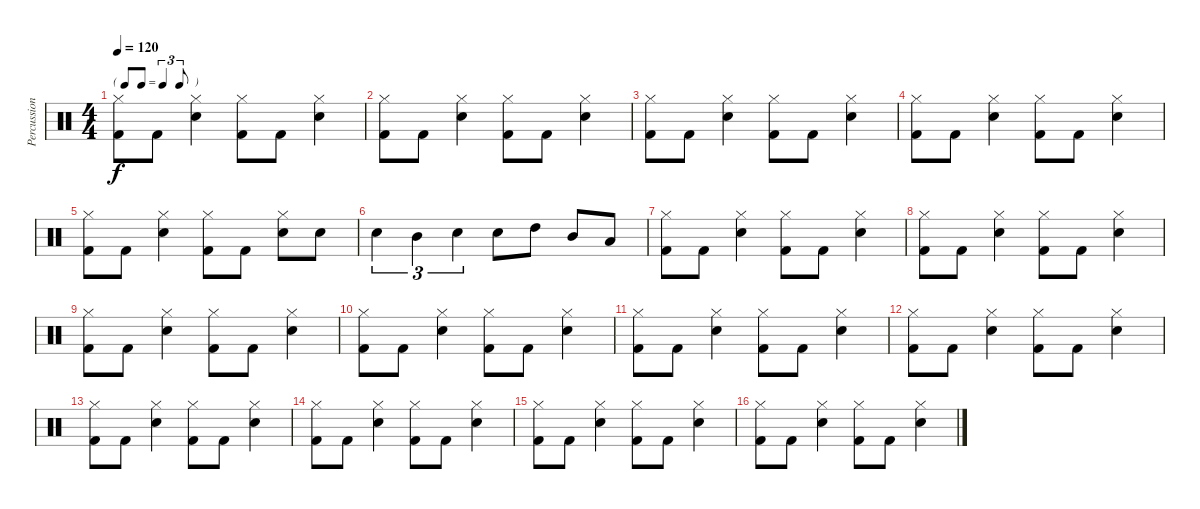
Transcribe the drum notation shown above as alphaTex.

\track ("Percussion" "Percussion") {instrument percussion}
\staff {score}
\articulation defaults
\ts (4 4)
\tf triplet8th
\tempo 120
\clef neutral
\ks c
("Hi-Hat (closed)" "Kick (hit) 2").8{dy f} "Kick (hit) 2".8 ("Hi-Hat (closed)" "Electric Snare (hit)").4 ("Hi-Hat (closed)" "Kick (hit) 2").8 "Kick (hit) 2".8 ("Hi-Hat (closed)" "Electric Snare (hit)").4 |
("Hi-Hat (closed)" "Kick (hit) 2").8 "Kick (hit) 2".8 ("Hi-Hat (closed)" "Electric Snare (hit)").4 ("Hi-Hat (closed)" "Kick (hit) 2").8 "Kick (hit) 2".8 ("Hi-Hat (closed)" "Electric Snare (hit)").4 |
("Hi-Hat (closed)" "Kick (hit) 2").8 "Kick (hit) 2".8 ("Hi-Hat (closed)" "Electric Snare (hit)").4 ("Hi-Hat (closed)" "Kick (hit) 2").8 "Kick (hit) 2".8 ("Hi-Hat (closed)" "Electric Snare (hit)").4 |
("Hi-Hat (closed)" "Kick (hit) 2").8 "Kick (hit) 2".8 ("Hi-Hat (closed)" "Electric Snare (hit)").4 ("Hi-Hat (closed)" "Kick (hit) 2").8 "Kick (hit) 2".8 ("Hi-Hat (closed)" "Electric Snare (hit)").4 |
("Hi-Hat (closed)" "Kick (hit) 2").8 "Kick (hit) 2".8 ("Hi-Hat (closed)" "Electric Snare (hit)").4 ("Hi-Hat (closed)" "Kick (hit) 2").8 "Kick (hit) 2".8 ("Hi-Hat (closed)" "Electric Snare (hit)").8 "Electric Snare (hit)".8 |
"Electric Snare (hit)".4{tu (3 2)} "Mid Tom (hit)".4{tu (3 2)} "Electric Snare (hit)".4{tu (3 2)} "Electric Snare (hit)".8 "High Tom (hit)".8 "Mid Tom (hit)".8 "Low Tom (hit)".8 |
("Hi-Hat (closed)" "Kick (hit) 2").8 "Kick (hit) 2".8 ("Hi-Hat (closed)" "Electric Snare (hit)").4 ("Hi-Hat (closed)" "Kick (hit) 2").8 "Kick (hit) 2".8 ("Hi-Hat (closed)" "Electric Snare (hit)").4 |
("Hi-Hat (closed)" "Kick (hit) 2").8 "Kick (hit) 2".8 ("Hi-Hat (closed)" "Electric Snare (hit)").4 ("Hi-Hat (closed)" "Kick (hit) 2").8 "Kick (hit) 2".8 ("Hi-Hat (closed)" "Electric Snare (hit)").4 |
("Hi-Hat (closed)" "Kick (hit) 2").8 "Kick (hit) 2".8 ("Hi-Hat (closed)" "Electric Snare (hit)").4 ("Hi-Hat (closed)" "Kick (hit) 2").8 "Kick (hit) 2".8 ("Hi-Hat (closed)" "Electric Snare (hit)").4 |
("Hi-Hat (closed)" "Kick (hit) 2").8 "Kick (hit) 2".8 ("Hi-Hat (closed)" "Electric Snare (hit)").4 ("Hi-Hat (closed)" "Kick (hit) 2").8 "Kick (hit) 2".8 ("Hi-Hat (closed)" "Electric Snare (hit)").4 |
("Hi-Hat (closed)" "Kick (hit) 2").8 "Kick (hit) 2".8 ("Hi-Hat (closed)" "Electric Snare (hit)").4 ("Hi-Hat (closed)" "Kick (hit) 2").8 "Kick (hit) 2".8 ("Hi-Hat (closed)" "Electric Snare (hit)").4 |
("Hi-Hat (closed)" "Kick (hit) 2").8 "Kick (hit) 2".8 ("Hi-Hat (closed)" "Electric Snare (hit)").4 ("Hi-Hat (closed)" "Kick (hit) 2").8 "Kick (hit) 2".8 ("Hi-Hat (closed)" "Electric Snare (hit)").4 |
("Hi-Hat (closed)" "Kick (hit) 2").8 "Kick (hit) 2".8 ("Hi-Hat (closed)" "Electric Snare (hit)").4 ("Hi-Hat (closed)" "Kick (hit) 2").8 "Kick (hit) 2".8 ("Hi-Hat (closed)" "Electric Snare (hit)").4 |
("Hi-Hat (closed)" "Kick (hit) 2").8 "Kick (hit) 2".8 ("Hi-Hat (closed)" "Electric Snare (hit)").4 ("Hi-Hat (closed)" "Kick (hit) 2").8 "Kick (hit) 2".8 ("Hi-Hat (closed)" "Electric Snare (hit)").4 |
("Hi-Hat (closed)" "Kick (hit) 2").8 "Kick (hit) 2".8 ("Hi-Hat (closed)" "Electric Snare (hit)").4 ("Hi-Hat (closed)" "Kick (hit) 2").8 "Kick (hit) 2".8 ("Hi-Hat (closed)" "Electric Snare (hit)").4 |
("Hi-Hat (closed)" "Kick (hit) 2").8 "Kick (hit) 2".8 ("Hi-Hat (closed)" "Electric Snare (hit)").4 ("Hi-Hat (closed)" "Kick (hit) 2").8 "Kick (hit) 2".8 ("Hi-Hat (closed)" "Electric Snare (hit)").4
